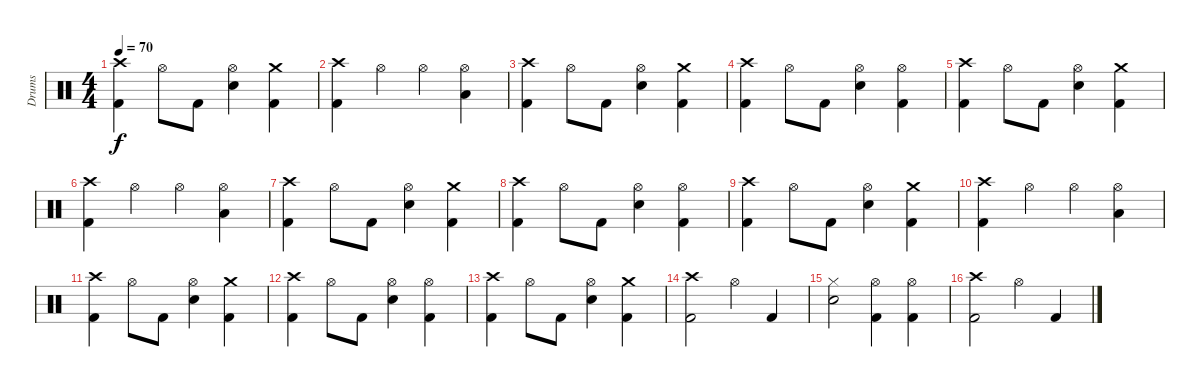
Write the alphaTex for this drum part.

\track ("Drums" "Drums") {instrument percussion}
\staff {score}
\articulation defaults
\ts (4 4)
\tempo 70
\clef neutral
\ks c
("Crash high (hit)" "Kick (hit) 2").4{dy f} "Hi-Hat (open)".8 "Kick (hit) 2".8 ("Hi-Hat (open)" "Electric Snare (hit)").4 ("Crash medium (hit)" "Kick (hit) 2").4 |
("Crash high (hit)" "Kick (hit) 2").4 "Hi-Hat (open)".4 "Hi-Hat (open)".4 ("Hi-Hat (open)" "Low Floor Tom (hit)").4 |
("Crash high (hit)" "Kick (hit) 2").4 "Hi-Hat (open)".8 "Kick (hit) 2".8 ("Hi-Hat (open)" "Electric Snare (hit)").4 ("Crash medium (hit)" "Kick (hit) 2").4 |
("Crash high (hit)" "Kick (hit) 2").4 "Hi-Hat (open)".8 "Kick (hit) 2".8 ("Hi-Hat (open)" "Electric Snare (hit)").4 ("Hi-Hat (open)" "Kick (hit) 2").4 |
("Crash high (hit)" "Kick (hit) 2").4 "Hi-Hat (open)".8 "Kick (hit) 2".8 ("Hi-Hat (open)" "Electric Snare (hit)").4 ("Crash medium (hit)" "Kick (hit) 2").4 |
("Crash high (hit)" "Kick (hit) 2").4 "Hi-Hat (open)".4 "Hi-Hat (open)".4 ("Hi-Hat (open)" "Low Floor Tom (hit)").4 |
("Crash high (hit)" "Kick (hit) 2").4 "Hi-Hat (open)".8 "Kick (hit) 2".8 ("Hi-Hat (open)" "Electric Snare (hit)").4 ("Crash medium (hit)" "Kick (hit) 2").4 |
("Crash high (hit)" "Kick (hit) 2").4 "Hi-Hat (open)".8 "Kick (hit) 2".8 ("Hi-Hat (open)" "Electric Snare (hit)").4 ("Hi-Hat (open)" "Kick (hit) 2").4 |
("Crash high (hit)" "Kick (hit) 2").4 "Hi-Hat (open)".8 "Kick (hit) 2".8 ("Hi-Hat (open)" "Electric Snare (hit)").4 ("Crash medium (hit)" "Kick (hit) 2").4 |
("Crash high (hit)" "Kick (hit) 2").4 "Hi-Hat (open)".4 "Hi-Hat (open)".4 ("Hi-Hat (open)" "Low Floor Tom (hit)").4 |
("Crash high (hit)" "Kick (hit) 2").4 "Hi-Hat (open)".8 "Kick (hit) 2".8 ("Hi-Hat (open)" "Electric Snare (hit)").4 ("Crash medium (hit)" "Kick (hit) 2").4 |
("Crash high (hit)" "Kick (hit) 2").4 "Hi-Hat (open)".8 "Kick (hit) 2".8 ("Hi-Hat (open)" "Electric Snare (hit)").4 ("Hi-Hat (open)" "Kick (hit) 2").4 |
("Crash high (hit)" "Kick (hit) 2").4 "Hi-Hat (open)".8 "Kick (hit) 2".8 ("Hi-Hat (open)" "Electric Snare (hit)").4 ("Crash medium (hit)" "Kick (hit) 2").4 |
("Crash high (hit)" "Kick (hit) 2").2 "Hi-Hat (open)".4 "Kick (hit) 2".4 |
("Hi-Hat (closed)" "Electric Snare (hit)").2 ("Hi-Hat (open)" "Kick (hit) 2").4 ("Hi-Hat (open)" "Kick (hit) 2").4 |
("Crash high (hit)" "Kick (hit) 2").2 "Hi-Hat (open)".4 "Kick (hit) 2".4
